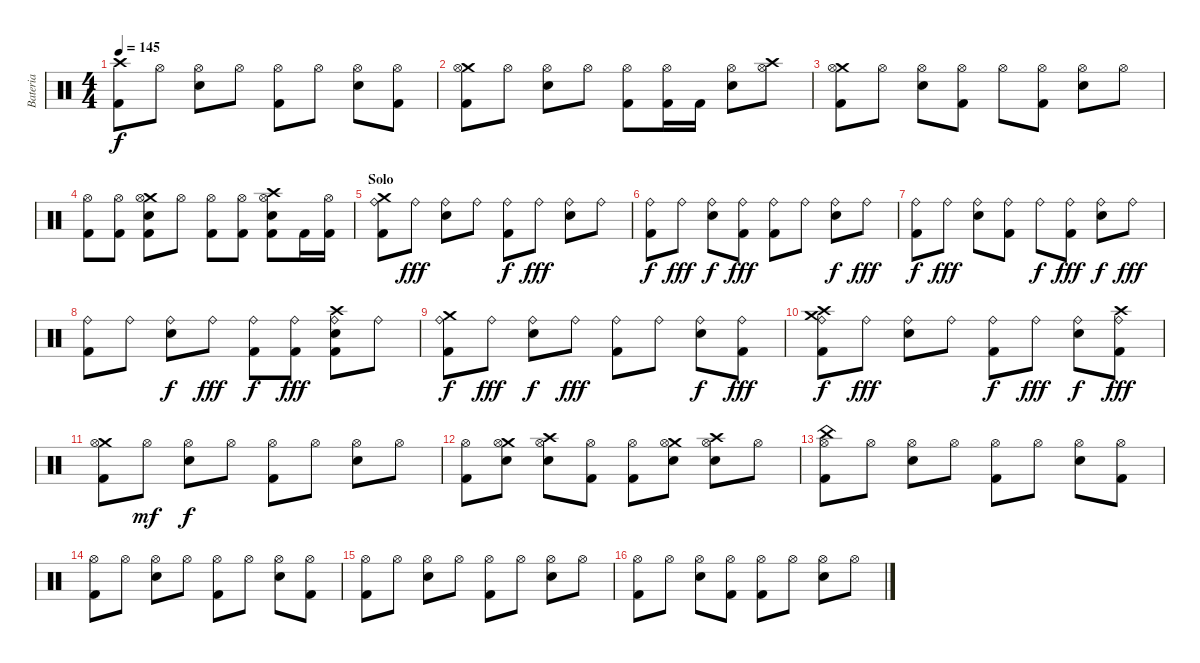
\track ("Bateria" "Bateria") {instrument percussion}
\staff {score}
\articulation defaults
\ts (4 4)
\tempo 145
\clef neutral
\ks c
("Crash high (hit)" "Kick (hit) 2").8{dy f} "Hi-Hat (open)".8 ("Hi-Hat (open)" "Electric Snare (hit)").8 "Hi-Hat (open)".8 ("Hi-Hat (open)" "Kick (hit) 2").8 "Hi-Hat (open)".8 ("Hi-Hat (open)" "Electric Snare (hit)").8 ("Hi-Hat (open)" "Kick (hit) 2").8 |
("Crash medium (hit)" "Hi-Hat (open)" "Kick (hit) 2").8 "Hi-Hat (open)".8 ("Hi-Hat (open)" "Electric Snare (hit)").8 "Hi-Hat (open)".8 ("Hi-Hat (open)" "Kick (hit) 2").8 ("Hi-Hat (open)" "Kick (hit) 2").16 "Kick (hit) 2".16 ("Hi-Hat (open)" "Electric Snare (hit)").8 ("Crash high (hit)" "Hi-Hat (open)").8 |
("Crash medium (hit)" "Hi-Hat (open)" "Kick (hit) 2").8 "Hi-Hat (open)".8 ("Hi-Hat (open)" "Electric Snare (hit)").8 ("Hi-Hat (open)" "Kick (hit) 2").8 "Hi-Hat (open)".8 ("Hi-Hat (open)" "Kick (hit) 2").8 ("Hi-Hat (open)" "Electric Snare (hit)").8 "Hi-Hat (open)".8 |
("Hi-Hat (open)" "Kick (hit) 2").8 ("Hi-Hat (open)" "Kick (hit) 2").8 ("Crash medium (hit)" "Hi-Hat (open)" "Electric Snare (hit)" "Kick (hit) 2").8 "Hi-Hat (open)".8 ("Hi-Hat (open)" "Kick (hit) 2").8 ("Hi-Hat (open)" "Kick (hit) 2").8 ("Crash high (hit)" "Hi-Hat (open)" "Electric Snare (hit)" "Kick (hit) 2").8 "Kick (hit) 2".16 ("Hi-Hat (open)" "Kick (hit) 2").16 |
\section ("" "Solo")
("Crash medium (hit)" "Ride (bell)" "Kick (hit) 2").8 "Ride (bell)".8{dy fff} ("Ride (bell)" "Electric Snare (hit)").8 "Ride (bell)".8 ("Ride (bell)" "Kick (hit) 2").8{dy f} "Ride (bell)".8{dy fff} ("Ride (bell)" "Electric Snare (hit)").8 "Ride (bell)".8 |
("Ride (bell)" "Kick (hit) 2").8{dy f} "Ride (bell)".8{dy fff} ("Ride (bell)" "Electric Snare (hit)").8{dy f} ("Ride (bell)" "Kick (hit) 2").8{dy fff} ("Ride (bell)" "Kick (hit) 2").8 "Ride (bell)".8 ("Ride (bell)" "Electric Snare (hit)").8{dy f} "Ride (bell)".8{dy fff} |
("Ride (bell)" "Kick (hit) 2").8{dy f} "Ride (bell)".8{dy fff} ("Ride (bell)" "Electric Snare (hit)").8 ("Ride (bell)" "Kick (hit) 2").8 "Ride (bell)".8{dy f} ("Ride (bell)" "Kick (hit) 2").8{dy fff} ("Ride (bell)" "Electric Snare (hit)").8{dy f} "Ride (bell)".8{dy fff} |
("Ride (bell)" "Kick (hit) 2").8 "Ride (bell)".8 ("Ride (bell)" "Electric Snare (hit)").8{dy f} "Ride (bell)".8{dy fff} ("Ride (bell)" "Kick (hit) 2").8{dy f} ("Ride (bell)" "Kick (hit) 2").8{dy fff} ("Crash high (hit)" "Ride (bell)" "Electric Snare (hit)" "Kick (hit) 2").8 "Ride (bell)".8 |
("Crash medium (hit)" "Ride (bell)" "Kick (hit) 2").8{dy f} "Ride (bell)".8{dy fff} ("Ride (bell)" "Electric Snare (hit)").8{dy f} "Ride (bell)".8{dy fff} ("Ride (bell)" "Kick (hit) 2").8 "Ride (bell)".8 ("Ride (bell)" "Electric Snare (hit)").8{dy f} ("Ride (bell)" "Kick (hit) 2").8{dy fff} |
("Crash high (hit)" "Crash medium (hit)" "Ride (bell)" "Kick (hit) 2").8{dy f} "Ride (bell)".8{dy fff} ("Ride (bell)" "Electric Snare (hit)").8 "Ride (bell)".8 ("Ride (bell)" "Kick (hit) 2").8{dy f} "Ride (bell)".8{dy fff} ("Ride (bell)" "Electric Snare (hit)").8{dy f} ("Crash high (hit)" "Ride (bell)" "Kick (hit) 2").8{dy fff} |
("Crash medium (hit)" "Hi-Hat (open)" "Kick (hit) 2").8 "Hi-Hat (open)".8{dy mf} ("Hi-Hat (open)" "Electric Snare (hit)").8{dy f} "Hi-Hat (open)".8 ("Hi-Hat (open)" "Kick (hit) 2").8 "Hi-Hat (open)".8 ("Hi-Hat (open)" "Electric Snare (hit)").8 "Hi-Hat (open)".8 |
("Hi-Hat (open)" "Kick (hit) 2").8 ("Crash medium (hit)" "Hi-Hat (open)" "Electric Snare (hit)").8 ("Crash high (hit)" "Hi-Hat (open)" "Electric Snare (hit)").8 ("Hi-Hat (open)" "Kick (hit) 2").8 ("Hi-Hat (open)" "Kick (hit) 2").8 ("Crash medium (hit)" "Hi-Hat (open)" "Electric Snare (hit)").8 ("Crash high (hit)" "Hi-Hat (open)" "Electric Snare (hit)").8 "Hi-Hat (open)".8 |
("China (hit)" "Hi-Hat (open)" "Kick (hit) 2").8 "Hi-Hat (open)".8 ("Hi-Hat (open)" "Electric Snare (hit)").8 "Hi-Hat (open)".8 ("Hi-Hat (open)" "Kick (hit) 2").8 "Hi-Hat (open)".8 ("Hi-Hat (open)" "Electric Snare (hit)").8 ("Hi-Hat (open)" "Kick (hit) 2").8 |
("Hi-Hat (open)" "Kick (hit) 2").8 "Hi-Hat (open)".8 ("Hi-Hat (open)" "Electric Snare (hit)").8 "Hi-Hat (open)".8 ("Hi-Hat (open)" "Kick (hit) 2").8 "Hi-Hat (open)".8 ("Hi-Hat (open)" "Electric Snare (hit)").8 ("Hi-Hat (open)" "Kick (hit) 2").8 |
("Hi-Hat (open)" "Kick (hit) 2").8 "Hi-Hat (open)".8 ("Hi-Hat (open)" "Electric Snare (hit)").8 "Hi-Hat (open)".8 ("Hi-Hat (open)" "Kick (hit) 2").8 "Hi-Hat (open)".8 ("Hi-Hat (open)" "Electric Snare (hit)").8 "Hi-Hat (open)".8 |
("Hi-Hat (open)" "Kick (hit) 2").8 "Hi-Hat (open)".8 ("Hi-Hat (open)" "Electric Snare (hit)").8 ("Hi-Hat (open)" "Kick (hit) 2").8 ("Hi-Hat (open)" "Kick (hit) 2").8 "Hi-Hat (open)".8 ("Hi-Hat (open)" "Electric Snare (hit)").8 "Hi-Hat (open)".8
